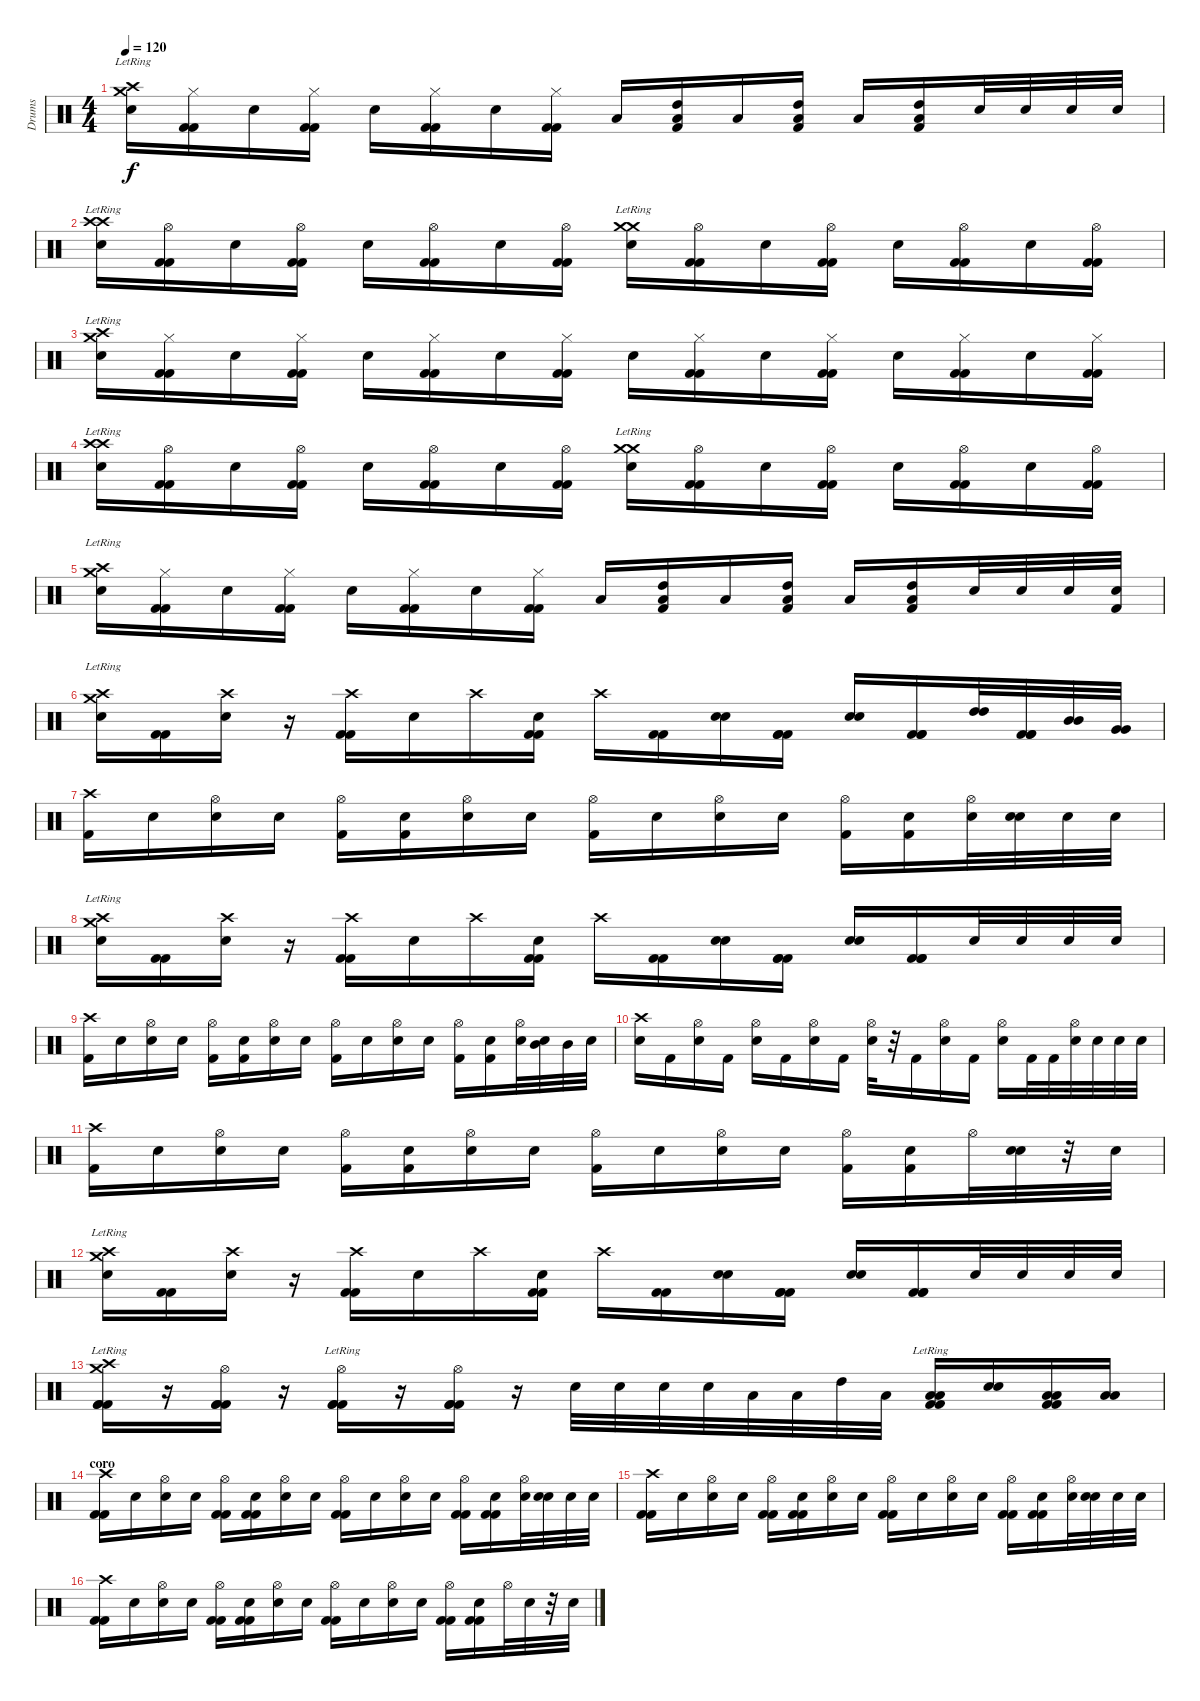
\track ("Drums" "Drums") {instrument percussion}
\staff {score}
\articulation defaults
\ts (4 4)
\tempo 120
\clef neutral
\ks c
("Crash medium (hit)"{lr} "Crash high (hit)"{lr} "Electric Snare (hit)").16{dy f} ("Hi-Hat (closed)" "Kick (hit) 2" "Kick (hit) 2").16 "Electric Snare (hit)".16 ("Hi-Hat (closed)" "Kick (hit) 2" "Kick (hit) 2").16 "Electric Snare (hit)".16 ("Hi-Hat (closed)" "Kick (hit) 2" "Kick (hit) 2").16 "Electric Snare (hit)".16 ("Hi-Hat (closed)" "Kick (hit) 2" "Kick (hit) 2").16 "Low Tom (hit)".16 ("Low Tom (hit)" "High Tom (hit)" "Kick (hit) 2").16 "Low Floor Tom (hit)".16 ("Low Floor Tom (hit)" "High Tom (hit)" "Kick (hit) 2").16 "Low Tom (hit)".16 ("Low Floor Tom (hit)" "High Tom (hit)" "Kick (hit) 2").16 "Electric Snare (hit)".32 "Electric Snare (hit)".32 "Electric Snare (hit)".32 "Electric Snare (hit)".32 |
("Crash high (hit)"{lr} "Crash high (hit)"{lr} "Electric Snare (hit)").16 ("Hi-Hat (open)" "Kick (hit) 2" "Kick (hit) 2").16 "Electric Snare (hit)".16 ("Hi-Hat (open)" "Kick (hit) 2" "Kick (hit) 2").16 "Electric Snare (hit)".16 ("Hi-Hat (open)" "Kick (hit) 2" "Kick (hit) 2").16 "Electric Snare (hit)".16 ("Hi-Hat (open)" "Kick (hit) 2" "Kick (hit) 2").16 ("Crash medium (hit)"{lr} "Crash medium (hit)"{lr} "Electric Snare (hit)").16 ("Hi-Hat (open)" "Kick (hit) 2" "Kick (hit) 2").16 "Electric Snare (hit)".16 ("Hi-Hat (open)" "Kick (hit) 2" "Kick (hit) 2").16 "Electric Snare (hit)".16 ("Hi-Hat (open)" "Kick (hit) 2" "Kick (hit) 2").16 "Electric Snare (hit)".16 ("Hi-Hat (open)" "Kick (hit) 2" "Kick (hit) 2").16 |
("Crash medium (hit)"{lr} "Crash high (hit)"{lr} "Electric Snare (hit)").16 ("Hi-Hat (closed)" "Kick (hit) 2" "Kick (hit) 2").16 "Electric Snare (hit)".16 ("Hi-Hat (closed)" "Kick (hit) 2" "Kick (hit) 2").16 "Electric Snare (hit)".16 ("Hi-Hat (closed)" "Kick (hit) 2" "Kick (hit) 2").16 "Electric Snare (hit)".16 ("Hi-Hat (closed)" "Kick (hit) 2" "Kick (hit) 2").16 "Electric Snare (hit)".16 ("Hi-Hat (closed)" "Kick (hit) 2" "Kick (hit) 2").16 "Electric Snare (hit)".16 ("Hi-Hat (closed)" "Kick (hit) 2" "Kick (hit) 2").16 "Electric Snare (hit)".16 ("Hi-Hat (closed)" "Kick (hit) 2" "Kick (hit) 2").16 "Electric Snare (hit)".16 ("Hi-Hat (closed)" "Kick (hit) 2" "Kick (hit) 2").16 |
("Crash high (hit)"{lr} "Crash high (hit)"{lr} "Electric Snare (hit)").16 ("Hi-Hat (open)" "Kick (hit) 2" "Kick (hit) 2").16 "Electric Snare (hit)".16 ("Hi-Hat (open)" "Kick (hit) 2" "Kick (hit) 2").16 "Electric Snare (hit)".16 ("Hi-Hat (open)" "Kick (hit) 2" "Kick (hit) 2").16 "Electric Snare (hit)".16 ("Hi-Hat (open)" "Kick (hit) 2" "Kick (hit) 2").16 ("Crash medium (hit)"{lr} "Crash medium (hit)"{lr} "Electric Snare (hit)").16 ("Hi-Hat (open)" "Kick (hit) 2" "Kick (hit) 2").16 "Electric Snare (hit)".16 ("Hi-Hat (open)" "Kick (hit) 2" "Kick (hit) 2").16 "Electric Snare (hit)".16 ("Hi-Hat (open)" "Kick (hit) 2" "Kick (hit) 2").16 "Electric Snare (hit)".16 ("Hi-Hat (open)" "Kick (hit) 2" "Kick (hit) 2").16 |
("Crash medium (hit)"{lr} "Crash high (hit)"{lr} "Electric Snare (hit)").16 ("Hi-Hat (closed)" "Kick (hit) 2" "Kick (hit) 2").16 "Electric Snare (hit)".16 ("Hi-Hat (closed)" "Kick (hit) 2" "Kick (hit) 2").16 "Electric Snare (hit)".16 ("Hi-Hat (closed)" "Kick (hit) 2" "Kick (hit) 2").16 "Electric Snare (hit)".16 ("Hi-Hat (closed)" "Kick (hit) 2" "Kick (hit) 2").16 "Low Tom (hit)".16 ("Low Tom (hit)" "High Tom (hit)" "Kick (hit) 2").16 "Low Floor Tom (hit)".16 ("Low Floor Tom (hit)" "High Tom (hit)" "Kick (hit) 2").16 "Low Tom (hit)".16 ("Low Floor Tom (hit)" "High Tom (hit)" "Kick (hit) 2").16 "Electric Snare (hit)".32 "Electric Snare (hit)".32 "Electric Snare (hit)".32 ("Kick (hit) 2" "Electric Snare (hit)").32 |
("Crash medium (hit)"{lr} "Crash high (hit)"{lr} "Electric Snare (hit)").16 ("Kick (hit) 2" "Kick (hit) 2").16 ("Crash high (hit)" "Electric Snare (hit)").16 r.16 ("Crash high (hit)" "Kick (hit) 2" "Kick (hit) 2").16 "Electric Snare (hit)".16 "Crash high (hit)".16 ("Electric Snare (hit)" "Kick (hit) 2" "Kick (hit) 2").16 "Crash high (hit)".16 ("Kick (hit) 2" "Kick (hit) 2").16 ("Electric Snare (hit)" "Electric Snare (hit)").16 ("Kick (hit) 2" "Kick (hit) 2" "Kick (hit) 2").16 ("Electric Snare (hit)" "Electric Snare (hit)").16 ("Kick (hit) 2" "Kick (hit) 2" "Kick (hit) 2").16 ("High Tom (hit)" "High Tom (hit)").32 ("Kick (hit) 2" "Kick (hit) 2" "Kick (hit) 2").32 ("Mid Tom (hit)" "Mid Tom (hit)").32 ("Very Low Tom (hit)" "Very Low Tom (hit)").32 |
("Crash high (hit)" "Kick (hit) 2").16 "Snare (hit)".16 ("Hi-Hat (open)" "Electric Snare (hit)").16 "Snare (hit)".16 ("Hi-Hat (open)" "Kick (hit) 2").16 ("Snare (hit)" "Kick (hit) 2").16 ("Hi-Hat (open)" "Electric Snare (hit)").16 "Snare (hit)".16 ("Hi-Hat (open)" "Kick (hit) 2").16 "Snare (hit)".16 ("Hi-Hat (open)" "Electric Snare (hit)").16 "Snare (hit)".16 ("Hi-Hat (open)" "Kick (hit) 2").16 ("Snare (hit)" "Kick (hit) 2").16 ("Hi-Hat (open)" "Electric Snare (hit)").32 ("Snare (hit)" "Electric Snare (hit)").32 "Electric Snare (hit)".32 "Electric Snare (hit)".32 |
("Crash medium (hit)"{lr} "Crash high (hit)"{lr} "Electric Snare (hit)").16 ("Kick (hit) 2" "Kick (hit) 2").16 ("Crash high (hit)" "Electric Snare (hit)").16 r.16 ("Crash high (hit)" "Kick (hit) 2" "Kick (hit) 2").16 "Electric Snare (hit)".16 "Crash high (hit)".16 ("Electric Snare (hit)" "Kick (hit) 2" "Kick (hit) 2").16 "Crash high (hit)".16 ("Kick (hit) 2" "Kick (hit) 2").16 ("Electric Snare (hit)" "Electric Snare (hit)").16 ("Kick (hit) 2" "Kick (hit) 2" "Kick (hit) 2").16 ("Electric Snare (hit)" "Electric Snare (hit)").16 ("Kick (hit) 2" "Kick (hit) 2" "Kick (hit) 2").16 "Electric Snare (hit)".32 "Electric Snare (hit)".32 "Electric Snare (hit)".32 "Electric Snare (hit)".32 |
("Crash high (hit)" "Kick (hit) 2").16 "Snare (hit)".16 ("Hi-Hat (open)" "Electric Snare (hit)").16 "Snare (hit)".16 ("Hi-Hat (open)" "Kick (hit) 2").16 ("Snare (hit)" "Kick (hit) 2").16 ("Hi-Hat (open)" "Electric Snare (hit)").16 "Snare (hit)".16 ("Hi-Hat (open)" "Kick (hit) 2").16 "Snare (hit)".16 ("Hi-Hat (open)" "Electric Snare (hit)").16 "Snare (hit)".16 ("Hi-Hat (open)" "Kick (hit) 2").16 ("Snare (hit)" "Kick (hit) 2").16 ("Hi-Hat (open)" "Electric Snare (hit)").32 ("Snare (hit)" "Mid Tom (hit)").32 "Mid Tom (hit)".32 "Electric Snare (hit)".32 |
("Crash high (hit)" "Electric Snare (hit)").16 "Kick (hit) 2".16 ("Hi-Hat (open)" "Electric Snare (hit)").16 "Kick (hit) 2".16 ("Hi-Hat (open)" "Electric Snare (hit)").16 "Kick (hit) 2".16 ("Hi-Hat (open)" "Electric Snare (hit)").16 "Kick (hit) 2".16 ("Hi-Hat (open)" "Electric Snare (hit)").32 r.32 "Kick (hit) 2".16 ("Hi-Hat (open)" "Electric Snare (hit)").16 "Kick (hit) 2".16 ("Hi-Hat (open)" "Electric Snare (hit)").16 "Kick (hit) 2".32 "Kick (hit) 2".32 ("Hi-Hat (open)" "Electric Snare (hit)").32 "Electric Snare (hit)".32 "Electric Snare (hit)".32 "Electric Snare (hit)".32 |
("Crash high (hit)" "Kick (hit) 2").16 "Snare (hit)".16 ("Hi-Hat (open)" "Electric Snare (hit)").16 "Snare (hit)".16 ("Hi-Hat (open)" "Kick (hit) 2").16 ("Snare (hit)" "Kick (hit) 2").16 ("Hi-Hat (open)" "Electric Snare (hit)").16 "Snare (hit)".16 ("Hi-Hat (open)" "Kick (hit) 2").16 "Snare (hit)".16 ("Hi-Hat (open)" "Electric Snare (hit)").16 "Snare (hit)".16 ("Hi-Hat (open)" "Kick (hit) 2").16 ("Snare (hit)" "Kick (hit) 2").16 "Hi-Hat (open)".32 ("Snare (hit)" "Electric Snare (hit)").32 r.32 "Electric Snare (hit)".32 |
("Crash medium (hit)"{lr} "Crash high (hit)"{lr} "Electric Snare (hit)").16 ("Kick (hit) 2" "Kick (hit) 2").16 ("Crash high (hit)" "Electric Snare (hit)").16 r.16 ("Crash high (hit)" "Kick (hit) 2" "Kick (hit) 2").16 "Electric Snare (hit)".16 "Crash high (hit)".16 ("Electric Snare (hit)" "Kick (hit) 2" "Kick (hit) 2").16 "Crash high (hit)".16 ("Kick (hit) 2" "Kick (hit) 2").16 ("Electric Snare (hit)" "Electric Snare (hit)").16 ("Kick (hit) 2" "Kick (hit) 2" "Kick (hit) 2").16 ("Electric Snare (hit)" "Electric Snare (hit)").16 ("Kick (hit) 2" "Kick (hit) 2" "Kick (hit) 2").16 "Electric Snare (hit)".32 "Electric Snare (hit)".32 "Electric Snare (hit)".32 "Electric Snare (hit)".32 |
("Crash high (hit)"{lr} "Crash medium (hit)"{lr} "Kick (hit) 2" "Kick (hit) 2" "Kick (hit) 2").16 r.16 ("Hi-Hat (open)" "Kick (hit) 2" "Kick (hit) 2" "Kick (hit) 2").16 r.16 ("Hi-Hat (open)"{lr} "Kick (hit) 2" "Kick (hit) 2" "Kick (hit) 2").16 r.16 ("Hi-Hat (open)" "Kick (hit) 2" "Kick (hit) 2" "Kick (hit) 2").16 r.16 "Electric Snare (hit)".32 "Electric Snare (hit)".32 "Electric Snare (hit)".32 "Electric Snare (hit)".32 "Low Floor Tom (hit)".32 "Low Tom (hit)".32 "High Tom (hit)".32 "Low Tom (hit)".32 ("Low Floor Tom (hit)" "Low Floor Tom (hit)"{lr} "Kick (hit) 2" "Kick (hit) 2").16 ("Electric Snare (hit)" "Electric Snare (hit)").16 ("Low Floor Tom (hit)" "Low Floor Tom (hit)" "Kick (hit) 2" "Kick (hit) 2").16 ("Low Tom (hit)" "Low Tom (hit)").16 |
\section ("" "coro")
("Crash high (hit)" "Kick (hit) 2" "Kick (hit) 2").16 "Snare (hit)".16 ("Hi-Hat (open)" "Electric Snare (hit)").16 "Snare (hit)".16 ("Hi-Hat (open)" "Kick (hit) 2" "Kick (hit) 2").16 ("Snare (hit)" "Kick (hit) 2" "Kick (hit) 2").16 ("Hi-Hat (open)" "Electric Snare (hit)").16 "Snare (hit)".16 ("Hi-Hat (open)" "Kick (hit) 2" "Kick (hit) 2").16 "Snare (hit)".16 ("Hi-Hat (open)" "Electric Snare (hit)").16 "Snare (hit)".16 ("Hi-Hat (open)" "Kick (hit) 2" "Kick (hit) 2").16 ("Snare (hit)" "Kick (hit) 2" "Kick (hit) 2").16 ("Hi-Hat (open)" "Electric Snare (hit)").32 ("Snare (hit)" "Electric Snare (hit)").32 "Electric Snare (hit)".32 "Electric Snare (hit)".32 |
("Crash high (hit)" "Kick (hit) 2" "Kick (hit) 2").16 "Snare (hit)".16 ("Hi-Hat (open)" "Electric Snare (hit)").16 "Snare (hit)".16 ("Hi-Hat (open)" "Kick (hit) 2" "Kick (hit) 2").16 ("Snare (hit)" "Kick (hit) 2" "Kick (hit) 2").16 ("Hi-Hat (open)" "Electric Snare (hit)").16 "Snare (hit)".16 ("Hi-Hat (open)" "Kick (hit) 2" "Kick (hit) 2").16 "Snare (hit)".16 ("Hi-Hat (open)" "Electric Snare (hit)").16 "Snare (hit)".16 ("Hi-Hat (open)" "Kick (hit) 2" "Kick (hit) 2").16 ("Snare (hit)" "Kick (hit) 2" "Kick (hit) 2").16 ("Hi-Hat (open)" "Electric Snare (hit)").32 ("Snare (hit)" "Electric Snare (hit)").32 "Electric Snare (hit)".32 "Electric Snare (hit)".32 |
("Crash high (hit)" "Kick (hit) 2" "Kick (hit) 2").16 "Snare (hit)".16 ("Hi-Hat (open)" "Electric Snare (hit)").16 "Snare (hit)".16 ("Hi-Hat (open)" "Kick (hit) 2" "Kick (hit) 2").16 ("Snare (hit)" "Kick (hit) 2" "Kick (hit) 2").16 ("Hi-Hat (open)" "Electric Snare (hit)").16 "Snare (hit)".16 ("Hi-Hat (open)" "Kick (hit) 2" "Kick (hit) 2").16 "Snare (hit)".16 ("Hi-Hat (open)" "Electric Snare (hit)").16 "Snare (hit)".16 ("Hi-Hat (open)" "Kick (hit) 2" "Kick (hit) 2").16 ("Snare (hit)" "Kick (hit) 2" "Kick (hit) 2").16 "Hi-Hat (open)".32 "Snare (hit)".32 r.32 "Electric Snare (hit)".32
